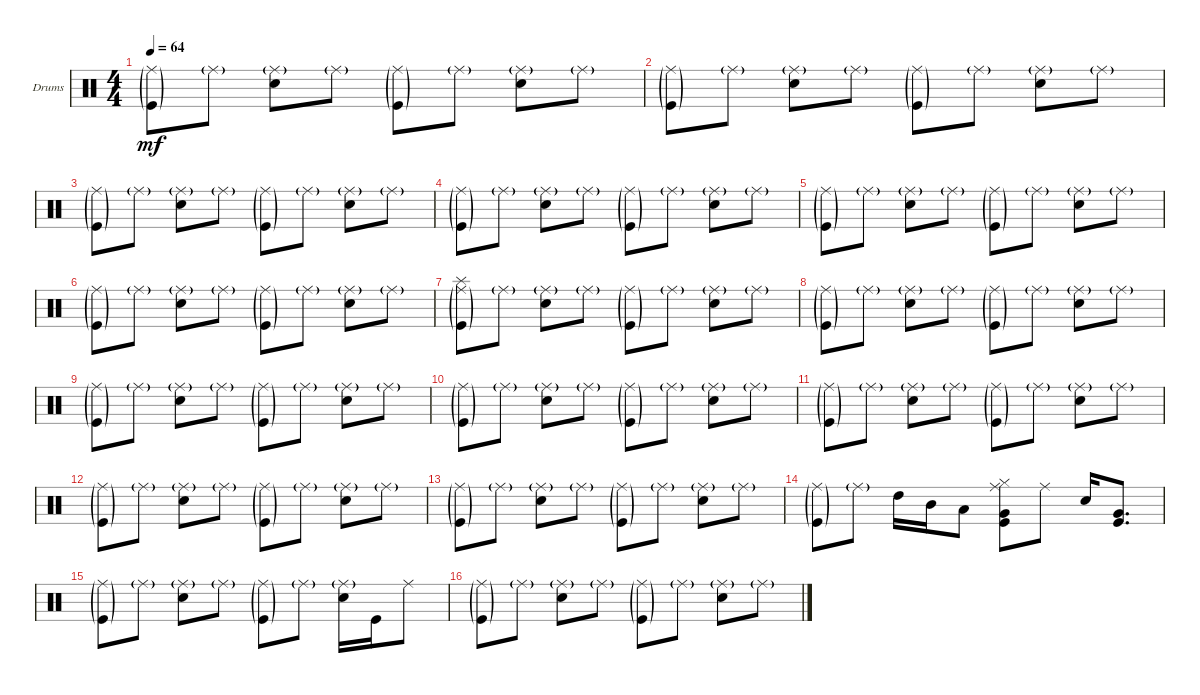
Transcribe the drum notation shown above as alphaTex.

\defaultSystemsLayout 4
\bracketExtendMode groupsimilarinstruments
\firstSystemTrackNameOrientation horizontal
\otherSystemsTrackNameOrientation horizontal
\track ("Drumkit" "Drums") {instrument percussion}
\staff {score}
\articulation defaults
\ts (4 4)
\tempo 64
\clef neutral
\ks c
("Ride (middle)"{g} "Kick (hit)"{g}).8{dy mf} "Ride (middle)"{g}.8 ("Ride (middle)"{g} "Snare (hit) 2").8 "Ride (middle)"{g}.8 ("Ride (middle)"{g} "Kick (hit)"{g}).8 "Ride (middle)"{g}.8 ("Ride (middle)"{g} "Snare (hit) 2").8 "Ride (middle)"{g}.8 |
("Ride (middle)"{g} "Kick (hit)"{g}).8 "Ride (middle)"{g}.8 ("Ride (middle)"{g} "Snare (hit) 2").8 "Ride (middle)"{g}.8 ("Ride (middle)"{g} "Kick (hit)"{g}).8 "Ride (middle)"{g}.8 ("Ride (middle)"{g} "Snare (hit) 2").8 "Ride (middle)"{g}.8 |
("Ride (middle)"{g} "Kick (hit)"{g}).8 "Ride (middle)"{g}.8 ("Ride (middle)"{g} "Snare (hit) 2").8 "Ride (middle)"{g}.8 ("Ride (middle)"{g} "Kick (hit)"{g}).8 "Ride (middle)"{g}.8 ("Ride (middle)"{g} "Snare (hit) 2").8 "Ride (middle)"{g}.8 |
("Ride (middle)"{g} "Kick (hit)"{g}).8 "Ride (middle)"{g}.8 ("Ride (middle)"{g} "Snare (hit) 2").8 "Ride (middle)"{g}.8 ("Ride (middle)"{g} "Kick (hit)"{g}).8 "Ride (middle)"{g}.8 ("Ride (middle)"{g} "Snare (hit) 2").8 "Ride (middle)"{g}.8 |
("Ride (middle)"{g} "Kick (hit)"{g}).8 "Ride (middle)"{g}.8 ("Ride (middle)"{g} "Snare (hit) 2").8 "Ride (middle)"{g}.8 ("Ride (middle)"{g} "Kick (hit)"{g}).8 "Ride (middle)"{g}.8 ("Ride (middle)"{g} "Snare (hit) 2").8 "Ride (middle)"{g}.8 |
("Ride (middle)"{g} "Kick (hit)"{g}).8 "Ride (middle)"{g}.8 ("Ride (middle)"{g} "Snare (hit) 2").8 "Ride (middle)"{g}.8 ("Ride (middle)"{g} "Kick (hit)"{g}).8 "Ride (middle)"{g}.8 ("Ride (middle)"{g} "Snare (hit) 2").8 "Ride (middle)"{g}.8 |
("Ride (middle)"{g} "Splash (hit)" "Kick (hit)"{g}).8 "Ride (middle)"{g}.8 ("Ride (middle)"{g} "Snare (hit) 2").8 "Ride (middle)"{g}.8 ("Ride (middle)"{g} "Kick (hit)"{g}).8 "Ride (middle)"{g}.8 ("Ride (middle)"{g} "Snare (hit) 2").8 "Ride (middle)"{g}.8 |
("Ride (middle)"{g} "Kick (hit)"{g}).8 "Ride (middle)"{g}.8 ("Ride (middle)"{g} "Snare (hit) 2").8 "Ride (middle)"{g}.8 ("Ride (middle)"{g} "Kick (hit)"{g}).8 "Ride (middle)"{g}.8 ("Ride (middle)"{g} "Snare (hit) 2").8 "Ride (middle)"{g}.8 |
("Ride (middle)"{g} "Kick (hit)"{g}).8 "Ride (middle)"{g}.8 ("Ride (middle)"{g} "Snare (hit) 2").8 "Ride (middle)"{g}.8 ("Ride (middle)"{g} "Kick (hit)"{g}).8 "Ride (middle)"{g}.8 ("Ride (middle)"{g} "Snare (hit) 2").8 "Ride (middle)"{g}.8 |
("Ride (middle)"{g} "Kick (hit)"{g}).8 "Ride (middle)"{g}.8 ("Ride (middle)"{g} "Snare (hit) 2").8 "Ride (middle)"{g}.8 ("Ride (middle)"{g} "Kick (hit)"{g}).8 "Ride (middle)"{g}.8 ("Ride (middle)"{g} "Snare (hit) 2").8 "Ride (middle)"{g}.8 |
("Ride (middle)"{g} "Kick (hit)"{g}).8 "Ride (middle)"{g}.8 ("Ride (middle)"{g} "Snare (hit) 2").8 "Ride (middle)"{g}.8 ("Ride (middle)"{g} "Kick (hit)"{g}).8 "Ride (middle)"{g}.8 ("Ride (middle)"{g} "Snare (hit) 2").8 "Ride (middle)"{g}.8 |
("Ride (middle)"{g} "Kick (hit)"{g}).8 "Ride (middle)"{g}.8 ("Ride (middle)"{g} "Snare (hit) 2").8 "Ride (middle)"{g}.8 ("Ride (middle)"{g} "Kick (hit)"{g}).8 "Ride (middle)"{g}.8 ("Ride (middle)"{g} "Snare (hit) 2").8 "Ride (middle)"{g}.8 |
("Ride (middle)"{g} "Kick (hit)"{g}).8 "Ride (middle)"{g}.8 ("Ride (middle)"{g} "Snare (hit) 2").8 "Ride (middle)"{g}.8 ("Ride (middle)"{g} "Kick (hit)"{g}).8 "Ride (middle)"{g}.8 ("Ride (middle)"{g} "Snare (hit) 2").8 "Ride (middle)"{g}.8 |
("Ride (middle)"{g} "Kick (hit)"{g}).8 "Ride (middle)"{g}.8 "High Tom (hit)".16 "Mid Tom (hit)".16 "Low Tom (hit)".8 ("Ride (middle)" "Hi-Hat (closed)" "Kick (hit)" "Very Low Tom (hit)").8 "Ride (middle)".8 "Snare (hit) 2".16 ("Very Low Tom (hit)" "Kick (hit)").8{d} |
("Ride (middle)"{g} "Kick (hit)"{g}).8 "Ride (middle)"{g}.8 ("Ride (middle)"{g} "Snare (hit) 2").8 "Ride (middle)"{g}.8 ("Ride (middle)"{g} "Kick (hit)"{g}).8 "Ride (middle)"{g}.8 ("Ride (middle)"{g} "Snare (hit) 2").16 "Kick (hit)".16 "Ride (middle)".8 |
("Ride (middle)"{g} "Kick (hit)"{g}).8 "Ride (middle)"{g}.8 ("Ride (middle)"{g} "Snare (hit) 2").8 "Ride (middle)"{g}.8 ("Ride (middle)"{g} "Kick (hit)"{g}).8 "Ride (middle)"{g}.8 ("Ride (middle)"{g} "Snare (hit) 2").8 "Ride (middle)"{g}.8
